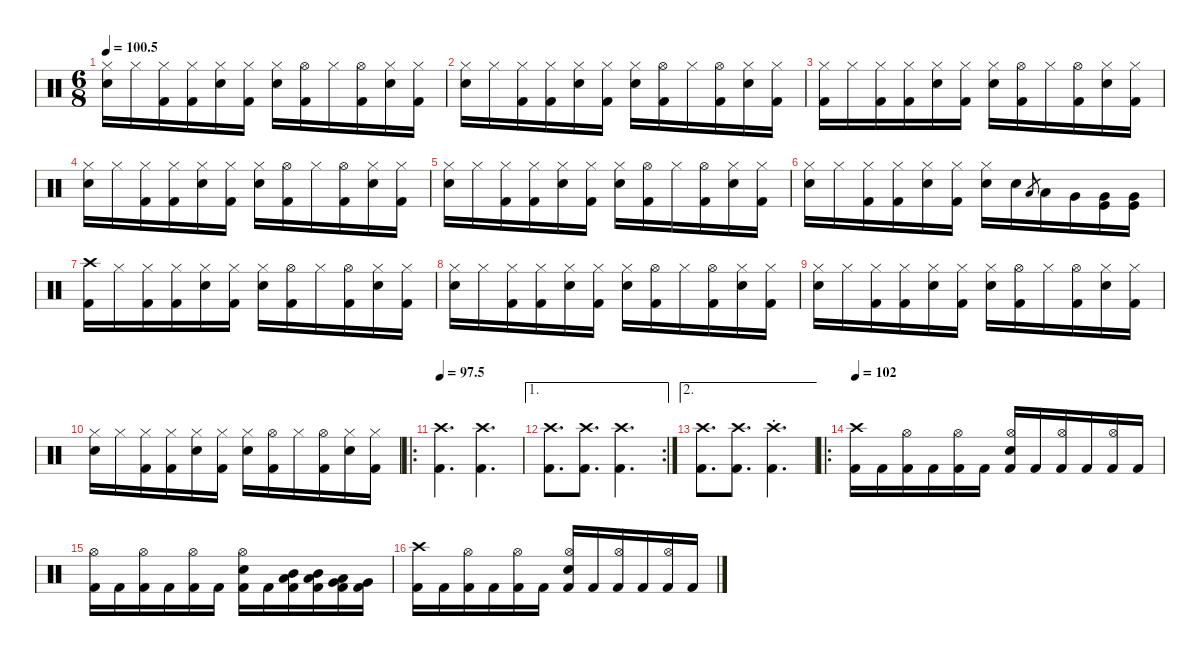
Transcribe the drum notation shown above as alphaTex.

\defaultSystemsLayout 4
\hideDynamics
\bracketExtendMode nobrackets
\singleTrackTrackNamePolicy hidden
\multiTrackTrackNamePolicy hidden
\firstSystemTrackNameMode fullname
\firstSystemTrackNameOrientation horizontal
\otherSystemsTrackNameOrientation horizontal
\track ("Drums" "drm.") {instrument percussion}
\staff {score}
\articulation defaults
\ts (6 8)
\tempo
100.5
\accidentals auto
\clef neutral
\ottava regular
\simile none
\ks c
("Hi-Hat (closed)" "Snare (hit) 2").16{dy f beam Down} "Hi-Hat (closed)".16{beam Down} ("Hi-Hat (closed)" "Kick (hit) 2").16{beam Down} ("Hi-Hat (closed)" "Kick (hit) 2").16{beam Down} ("Hi-Hat (closed)" "Snare (hit) 2").16{beam Down} ("Hi-Hat (closed)" "Kick (hit) 2").16{beam Down} ("Hi-Hat (closed)" "Snare (hit) 2").16{beam Down} ("Hi-Hat (open)" "Kick (hit) 2").16{dy ff beam Down} "Hi-Hat (closed)".16{dy f beam Down} ("Hi-Hat (open)" "Kick (hit) 2").16{dy ff beam Down} ("Hi-Hat (closed)" "Snare (hit) 2").16{dy f beam Down} ("Hi-Hat (closed)" "Kick (hit) 2").16{beam Down} |
("Hi-Hat (closed)" "Snare (hit) 2").16{beam Down} "Hi-Hat (closed)".16{beam Down} ("Hi-Hat (closed)" "Kick (hit) 2").16{beam Down} ("Hi-Hat (closed)" "Kick (hit) 2").16{beam Down} ("Hi-Hat (closed)" "Snare (hit) 2").16{beam Down} ("Hi-Hat (closed)" "Kick (hit) 2").16{beam Down} ("Hi-Hat (closed)" "Snare (hit) 2").16{beam Down} ("Hi-Hat (open)" "Kick (hit) 2").16{dy ff beam Down} "Hi-Hat (closed)".16{dy f beam Down} ("Hi-Hat (open)" "Kick (hit) 2").16{dy ff beam Down} ("Hi-Hat (closed)" "Snare (hit) 2").16{dy f beam Down} ("Hi-Hat (closed)" "Kick (hit) 2").16{beam Down} |
("Hi-Hat (closed)" "Kick (hit) 2").16{beam Down} "Hi-Hat (closed)".16{beam Down} ("Hi-Hat (closed)" "Kick (hit) 2").16{beam Down} ("Hi-Hat (closed)" "Kick (hit) 2").16{beam Down} ("Hi-Hat (closed)" "Snare (hit) 2").16{beam Down} ("Hi-Hat (closed)" "Kick (hit) 2").16{beam Down} ("Hi-Hat (closed)" "Snare (hit) 2").16{beam Down} ("Hi-Hat (open)" "Kick (hit) 2").16{dy ff beam Down} "Hi-Hat (closed)".16{dy f beam Down} ("Hi-Hat (open)" "Kick (hit) 2").16{dy ff beam Down} ("Hi-Hat (closed)" "Snare (hit) 2").16{dy f beam Down} ("Hi-Hat (closed)" "Kick (hit) 2").16{beam Down} |
("Hi-Hat (closed)" "Snare (hit) 2").16{beam Down} "Hi-Hat (closed)".16{beam Down} ("Hi-Hat (closed)" "Kick (hit) 2").16{beam Down} ("Hi-Hat (closed)" "Kick (hit) 2").16{beam Down} ("Hi-Hat (closed)" "Snare (hit) 2").16{beam Down} ("Hi-Hat (closed)" "Kick (hit) 2").16{beam Down} ("Hi-Hat (closed)" "Snare (hit) 2").16{beam Down} ("Hi-Hat (open)" "Kick (hit) 2").16{dy ff beam Down} "Hi-Hat (closed)".16{dy f beam Down} ("Hi-Hat (open)" "Kick (hit) 2").16{dy ff beam Down} ("Hi-Hat (closed)" "Snare (hit) 2").16{dy f beam Down} ("Hi-Hat (closed)" "Kick (hit) 2").16{beam Down} |
("Hi-Hat (closed)" "Snare (hit) 2").16{beam Down} "Hi-Hat (closed)".16{beam Down} ("Hi-Hat (closed)" "Kick (hit) 2").16{beam Down} ("Hi-Hat (closed)" "Kick (hit) 2").16{beam Down} ("Hi-Hat (closed)" "Snare (hit) 2").16{beam Down} ("Hi-Hat (closed)" "Kick (hit) 2").16{beam Down} ("Hi-Hat (closed)" "Snare (hit) 2").16{beam Down} ("Hi-Hat (open)" "Kick (hit) 2").16{dy ff beam Down} "Hi-Hat (closed)".16{dy f beam Down} ("Hi-Hat (open)" "Kick (hit) 2").16{dy ff beam Down} ("Hi-Hat (closed)" "Snare (hit) 2").16{dy f beam Down} ("Hi-Hat (closed)" "Kick (hit) 2").16{beam Down} |
("Hi-Hat (closed)" "Snare (hit) 2").16{beam Down} "Hi-Hat (closed)".16{beam Down} ("Hi-Hat (closed)" "Kick (hit) 2").16{beam Down} ("Hi-Hat (closed)" "Kick (hit) 2").16{beam Down} ("Hi-Hat (closed)" "Snare (hit) 2").16{beam Down} ("Hi-Hat (closed)" "Kick (hit) 2").16{beam Down} ("Hi-Hat (closed)" "Snare (hit) 2").16{beam Down} "Snare (hit) 2".16{beam Down} "Low Tom (hit)".8{gr dy mf beam Up} "Low Tom (hit)".16{dy f beam Down} "Very Low Tom (hit)".16{beam Down} ("Kick (hit)" "Very Low Tom (hit)").16{beam Down} ("Kick (hit)" "Very Low Tom (hit)").16{beam Down} |
("Crash high (hit)" "Kick (hit) 2").16{beam Down} "Hi-Hat (closed)".16{beam Down} ("Hi-Hat (closed)" "Kick (hit) 2").16{beam Down} ("Hi-Hat (closed)" "Kick (hit) 2").16{beam Down} ("Hi-Hat (closed)" "Snare (hit) 2").16{beam Down} ("Hi-Hat (closed)" "Kick (hit) 2").16{beam Down} ("Hi-Hat (closed)" "Snare (hit) 2").16{beam Down} ("Hi-Hat (open)" "Kick (hit) 2").16{dy ff beam Down} "Hi-Hat (closed)".16{dy f beam Down} ("Hi-Hat (open)" "Kick (hit) 2").16{dy ff beam Down} ("Hi-Hat (closed)" "Snare (hit) 2").16{dy f beam Down} ("Hi-Hat (closed)" "Kick (hit) 2").16{beam Down} |
("Hi-Hat (closed)" "Snare (hit) 2").16{beam Down} "Hi-Hat (closed)".16{beam Down} ("Hi-Hat (closed)" "Kick (hit) 2").16{beam Down} ("Hi-Hat (closed)" "Kick (hit) 2").16{beam Down} ("Hi-Hat (closed)" "Snare (hit) 2").16{beam Down} ("Hi-Hat (closed)" "Kick (hit) 2").16{beam Down} ("Hi-Hat (closed)" "Snare (hit) 2").16{beam Down} ("Hi-Hat (open)" "Kick (hit) 2").16{dy ff beam Down} "Hi-Hat (closed)".16{dy f beam Down} ("Hi-Hat (open)" "Kick (hit) 2").16{dy ff beam Down} ("Hi-Hat (closed)" "Snare (hit) 2").16{dy f beam Down} ("Hi-Hat (closed)" "Kick (hit) 2").16{beam Down} |
("Hi-Hat (closed)" "Snare (hit) 2").16{beam Down} "Hi-Hat (closed)".16{beam Down} ("Hi-Hat (closed)" "Kick (hit) 2").16{beam Down} ("Hi-Hat (closed)" "Kick (hit) 2").16{beam Down} ("Hi-Hat (closed)" "Snare (hit) 2").16{beam Down} ("Hi-Hat (closed)" "Kick (hit) 2").16{beam Down} ("Hi-Hat (closed)" "Snare (hit) 2").16{beam Down} ("Hi-Hat (open)" "Kick (hit) 2").16{dy ff beam Down} "Hi-Hat (closed)".16{dy f beam Down} ("Hi-Hat (open)" "Kick (hit) 2").16{dy ff beam Down} ("Hi-Hat (closed)" "Snare (hit) 2").16{dy f beam Down} ("Hi-Hat (closed)" "Kick (hit) 2").16{beam Down} |
("Hi-Hat (closed)" "Snare (hit) 2").16{beam Down} "Hi-Hat (closed)".16{beam Down} ("Hi-Hat (closed)" "Kick (hit) 2").16{beam Down} ("Hi-Hat (closed)" "Kick (hit) 2").16{beam Down} ("Hi-Hat (closed)" "Snare (hit) 2").16{beam Down} ("Hi-Hat (closed)" "Kick (hit) 2").16{beam Down} ("Hi-Hat (closed)" "Snare (hit) 2").16{beam Down} ("Hi-Hat (open)" "Kick (hit) 2").16{dy ff beam Down} "Hi-Hat (closed)".16{dy f beam Down} ("Hi-Hat (open)" "Kick (hit) 2").16{dy ff beam Down} ("Hi-Hat (closed)" "Snare (hit) 2").16{dy f beam Down} ("Hi-Hat (closed)" "Kick (hit) 2").16{beam Down} |
\ro
\tempo
97.5 ("Crash high (hit)" "Kick (hit) 2").4{d beam Down} ("Crash high (hit)" "Kick (hit) 2").4{d beam Down} |
\ae 1
\rc 2
("Crash high (hit)" "Kick (hit) 2").8{d beam Down} ("Crash high (hit)" "Kick (hit) 2").8{d beam Down} ("Crash high (hit)" "Kick (hit) 2").4{d beam Down} |
\ae 2
("Crash high (hit)" "Kick (hit) 2").8{d beam Down} ("Crash high (hit)" "Kick (hit) 2").8{d beam Down} ("Crash high (hit)"{st} "Kick (hit) 2"{st}).4{d beam Down} |
\ro
\tempo 102
("Crash high (hit)" "Kick (hit) 2").16{beam Down} "Kick (hit) 2".16{beam Down} ("Hi-Hat (open)" "Kick (hit) 2").16{dy mp beam Down} "Kick (hit) 2".16{dy f beam Down} ("Hi-Hat (open)" "Kick (hit) 2").16{dy mp beam Down} "Kick (hit) 2".16{dy f beam Down} ("Hi-Hat (open)" "Snare (hit) 2" "Kick (hit) 2").16{dy mp beam Up} "Kick (hit) 2".16{dy f beam Up} ("Hi-Hat (open)" "Kick (hit) 2").16{dy mp beam Up} "Kick (hit) 2".16{dy f beam Up} ("Hi-Hat (open)" "Kick (hit) 2").16{dy mp beam Up} "Kick (hit) 2".16{dy f beam Up} |
("Hi-Hat (open)" "Kick (hit) 2").16{dy mp beam Down} "Kick (hit) 2".16{dy f beam Down} ("Hi-Hat (open)" "Kick (hit) 2").16{dy mp beam Down} "Kick (hit) 2".16{dy f beam Down} ("Hi-Hat (open)" "Kick (hit) 2").16{dy mp beam Down} "Kick (hit) 2".16{dy f beam Down} ("Hi-Hat (open)" "Snare (hit) 2" "Kick (hit) 2").16{dy mp beam Down} "Kick (hit) 2".16{dy f beam Down} ("Mid Tom (hit)" "Low Tom (hit)" "Kick (hit) 2").16{beam Down} ("Mid Tom (hit)" "Low Tom (hit)" "Kick (hit) 2").16{beam Down} ("Low Tom (hit)" "Very Low Tom (hit)" "Kick (hit) 2").16{beam Down} ("Very Low Tom (hit)" "Kick (hit) 2").16{beam Down} |
("Crash high (hit)" "Kick (hit) 2").16{beam Down} "Kick (hit) 2".16{beam Down} ("Hi-Hat (open)" "Kick (hit) 2").16{dy mp beam Down} "Kick (hit) 2".16{dy f beam Down} ("Hi-Hat (open)" "Kick (hit) 2").16{dy mp beam Down} "Kick (hit) 2".16{dy f beam Down} ("Hi-Hat (open)" "Snare (hit) 2" "Kick (hit) 2").16{dy mp beam Up} "Kick (hit) 2".16{dy f beam Up} ("Hi-Hat (open)" "Kick (hit) 2").16{dy mp beam Up} "Kick (hit) 2".16{dy f beam Up} ("Hi-Hat (open)" "Kick (hit) 2").16{dy mp beam Up} "Kick (hit) 2".16{dy f beam Up}
